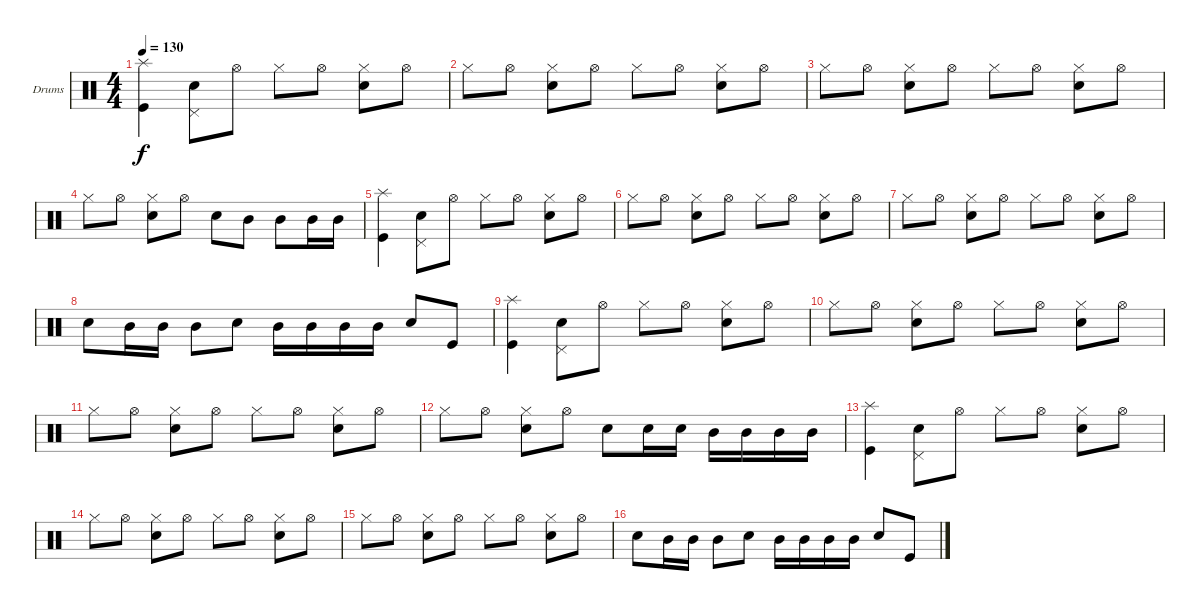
\defaultSystemsLayout 4
\bracketExtendMode groupsimilarinstruments
\firstSystemTrackNameOrientation horizontal
\otherSystemsTrackNameOrientation horizontal
\track ("Inazawa" "Drums") {instrument percussion}
\staff {score}
\articulation defaults
\ts (4 4)
\tempo 130
\clef neutral
\ks c
("Kick (hit)" "Splash (hit)").4{dy f} ("Snare (hit) 2" "Pedal Hi-Hat (hit)").8 "Hi-Hat (open)".8 "Hi-Hat (closed)".8 "Hi-Hat (open)".8 ("Hi-Hat (closed)" "Snare (hit) 2").8 "Hi-Hat (open)".8 |
"Hi-Hat (closed)".8 "Hi-Hat (open)".8 ("Hi-Hat (closed)" "Snare (hit) 2").8 "Hi-Hat (open)".8 "Hi-Hat (closed)".8 "Hi-Hat (open)".8 ("Hi-Hat (closed)" "Snare (hit) 2").8 "Hi-Hat (open)".8 |
"Hi-Hat (closed)".8 "Hi-Hat (open)".8 ("Hi-Hat (closed)" "Snare (hit) 2").8 "Hi-Hat (open)".8 "Hi-Hat (closed)".8 "Hi-Hat (open)".8 ("Hi-Hat (closed)" "Snare (hit) 2").8 "Hi-Hat (open)".8 |
"Hi-Hat (closed)".8 "Hi-Hat (open)".8 ("Hi-Hat (closed)" "Snare (hit) 2").8 "Hi-Hat (open)".8 "Snare (hit) 2".8 "Mid Tom (hit)".8 "Mid Tom (hit)".8 "Mid Tom (hit)".16 "Mid Tom (hit)".16 |
("Kick (hit)" "Splash (hit)").4 ("Snare (hit) 2" "Pedal Hi-Hat (hit)").8 "Hi-Hat (open)".8 "Hi-Hat (closed)".8 "Hi-Hat (open)".8 ("Hi-Hat (closed)" "Snare (hit) 2").8 "Hi-Hat (open)".8 |
"Hi-Hat (closed)".8 "Hi-Hat (open)".8 ("Hi-Hat (closed)" "Snare (hit) 2").8 "Hi-Hat (open)".8 "Hi-Hat (closed)".8 "Hi-Hat (open)".8 ("Hi-Hat (closed)" "Snare (hit) 2").8 "Hi-Hat (open)".8 |
"Hi-Hat (closed)".8 "Hi-Hat (open)".8 ("Hi-Hat (closed)" "Snare (hit) 2").8 "Hi-Hat (open)".8 "Hi-Hat (closed)".8 "Hi-Hat (open)".8 ("Hi-Hat (closed)" "Snare (hit) 2").8 "Hi-Hat (open)".8 |
"Snare (hit) 2".8 "Mid Tom (hit)".16 "Mid Tom (hit)".16 "Mid Tom (hit)".8 "Snare (hit) 2".8 "Mid Tom (hit)".16 "Mid Tom (hit)".16 "Mid Tom (hit)".16 "Mid Tom (hit)".16 "Snare (hit) 2".8 "Kick (hit)".8 |
("Kick (hit)" "Splash (hit)").4 ("Snare (hit) 2" "Pedal Hi-Hat (hit)").8 "Hi-Hat (open)".8 "Hi-Hat (closed)".8 "Hi-Hat (open)".8 ("Hi-Hat (closed)" "Snare (hit) 2").8 "Hi-Hat (open)".8 |
"Hi-Hat (closed)".8 "Hi-Hat (open)".8 ("Hi-Hat (closed)" "Snare (hit) 2").8 "Hi-Hat (open)".8 "Hi-Hat (closed)".8 "Hi-Hat (open)".8 ("Hi-Hat (closed)" "Snare (hit) 2").8 "Hi-Hat (open)".8 |
"Hi-Hat (closed)".8 "Hi-Hat (open)".8 ("Hi-Hat (closed)" "Snare (hit) 2").8 "Hi-Hat (open)".8 "Hi-Hat (closed)".8 "Hi-Hat (open)".8 ("Hi-Hat (closed)" "Snare (hit) 2").8 "Hi-Hat (open)".8 |
"Hi-Hat (closed)".8 "Hi-Hat (open)".8 ("Hi-Hat (closed)" "Snare (hit) 2").8 "Hi-Hat (open)".8 "Snare (hit) 2".8 "Snare (hit) 2".16 "Snare (hit) 2".16 "Mid Tom (hit)".16 "Mid Tom (hit)".16 "Mid Tom (hit)".16 "Mid Tom (hit)".16 |
("Kick (hit)" "Splash (hit)").4 ("Snare (hit) 2" "Pedal Hi-Hat (hit)").8 "Hi-Hat (open)".8 "Hi-Hat (closed)".8 "Hi-Hat (open)".8 ("Hi-Hat (closed)" "Snare (hit) 2").8 "Hi-Hat (open)".8 |
"Hi-Hat (closed)".8 "Hi-Hat (open)".8 ("Hi-Hat (closed)" "Snare (hit) 2").8 "Hi-Hat (open)".8 "Hi-Hat (closed)".8 "Hi-Hat (open)".8 ("Hi-Hat (closed)" "Snare (hit) 2").8 "Hi-Hat (open)".8 |
"Hi-Hat (closed)".8 "Hi-Hat (open)".8 ("Hi-Hat (closed)" "Snare (hit) 2").8 "Hi-Hat (open)".8 "Hi-Hat (closed)".8 "Hi-Hat (open)".8 ("Hi-Hat (closed)" "Snare (hit) 2").8 "Hi-Hat (open)".8 |
"Snare (hit) 2".8 "Mid Tom (hit)".16 "Mid Tom (hit)".16 "Mid Tom (hit)".8 "Snare (hit) 2".8 "Mid Tom (hit)".16 "Mid Tom (hit)".16 "Mid Tom (hit)".16 "Mid Tom (hit)".16 "Snare (hit) 2".8 "Kick (hit)".8
